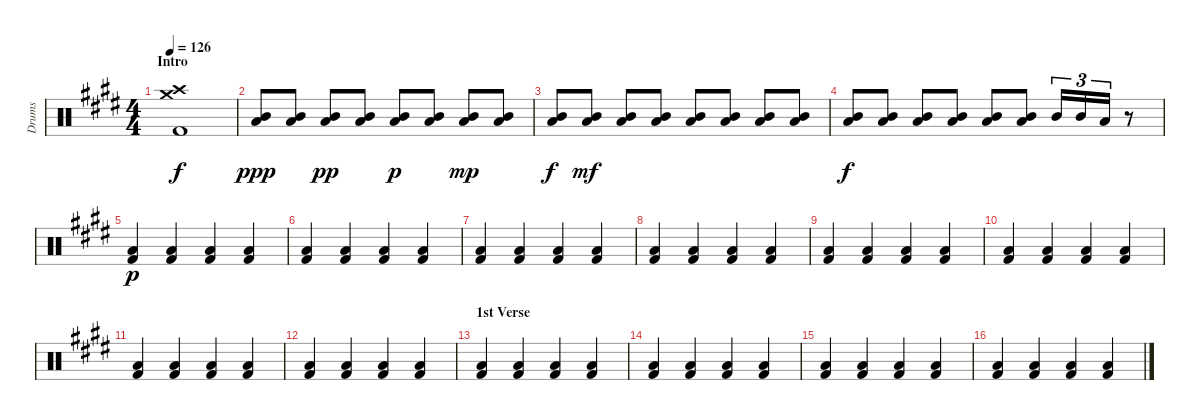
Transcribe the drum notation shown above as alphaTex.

\track ("Drums" "Drums") {instrument percussion}
\staff {score}
\articulation defaults
\ts (4 4)
\section ("" "Intro")
\tempo 126
\clef neutral
\ks e
("Crash high (hit)" "Crash medium (hit)" "Kick (hit) 2").1{dy f} |
("Mid Tom (hit)" "Low Tom (hit)").8{dy ppp} ("Mid Tom (hit)" "Low Tom (hit)").8 ("Mid Tom (hit)" "Low Tom (hit)").8{dy pp} ("Mid Tom (hit)" "Low Tom (hit)").8 ("Mid Tom (hit)" "Low Tom (hit)").8{dy p} ("Mid Tom (hit)" "Low Tom (hit)").8 ("Mid Tom (hit)" "Low Tom (hit)").8{dy mp} ("Mid Tom (hit)" "Low Tom (hit)").8 |
("Mid Tom (hit)" "Low Tom (hit)").8{dy f} ("Mid Tom (hit)" "Low Tom (hit)").8{dy mf} ("Mid Tom (hit)" "Low Tom (hit)").8 ("Mid Tom (hit)" "Low Tom (hit)").8 ("Mid Tom (hit)" "Low Tom (hit)").8 ("Mid Tom (hit)" "Low Tom (hit)").8 ("Mid Tom (hit)" "Low Tom (hit)").8 ("Mid Tom (hit)" "Low Tom (hit)").8 |
("Mid Tom (hit)" "Low Tom (hit)").8{dy f} ("Mid Tom (hit)" "Low Tom (hit)").8 ("Mid Tom (hit)" "Low Tom (hit)").8 ("Mid Tom (hit)" "Low Tom (hit)").8 ("Mid Tom (hit)" "Low Tom (hit)").8 ("Mid Tom (hit)" "Low Tom (hit)").8 "Mid Tom (hit)".16{tu (3 2)} "Mid Tom (hit)".16{tu (3 2)} "Low Tom (hit)".16{tu (3 2)} r.8 |
("Low Tom (hit)" "Kick (hit) 2").4{dy p} ("Low Tom (hit)" "Kick (hit) 2").4 ("Low Tom (hit)" "Kick (hit) 2").4 ("Low Tom (hit)" "Kick (hit) 2").4 |
("Low Tom (hit)" "Kick (hit) 2").4 ("Low Tom (hit)" "Kick (hit) 2").4 ("Low Tom (hit)" "Kick (hit) 2").4 ("Low Tom (hit)" "Kick (hit) 2").4 |
("Low Tom (hit)" "Kick (hit) 2").4 ("Low Tom (hit)" "Kick (hit) 2").4 ("Low Tom (hit)" "Kick (hit) 2").4 ("Low Tom (hit)" "Kick (hit) 2").4 |
("Low Tom (hit)" "Kick (hit) 2").4 ("Low Tom (hit)" "Kick (hit) 2").4 ("Low Tom (hit)" "Kick (hit) 2").4 ("Low Tom (hit)" "Kick (hit) 2").4 |
("Low Tom (hit)" "Kick (hit) 2").4 ("Low Tom (hit)" "Kick (hit) 2").4 ("Low Tom (hit)" "Kick (hit) 2").4 ("Low Tom (hit)" "Kick (hit) 2").4 |
("Low Tom (hit)" "Kick (hit) 2").4 ("Low Tom (hit)" "Kick (hit) 2").4 ("Low Tom (hit)" "Kick (hit) 2").4 ("Low Tom (hit)" "Kick (hit) 2").4 |
("Low Tom (hit)" "Kick (hit) 2").4 ("Low Tom (hit)" "Kick (hit) 2").4 ("Low Tom (hit)" "Kick (hit) 2").4 ("Low Tom (hit)" "Kick (hit) 2").4 |
("Low Tom (hit)" "Kick (hit) 2").4 ("Low Tom (hit)" "Kick (hit) 2").4 ("Low Tom (hit)" "Kick (hit) 2").4 ("Low Tom (hit)" "Kick (hit) 2").4 |
\section ("" "1st Verse")
("Low Tom (hit)" "Kick (hit) 2").4 ("Low Tom (hit)" "Kick (hit) 2").4 ("Low Tom (hit)" "Kick (hit) 2").4 ("Low Tom (hit)" "Kick (hit) 2").4 |
("Low Tom (hit)" "Kick (hit) 2").4 ("Low Tom (hit)" "Kick (hit) 2").4 ("Low Tom (hit)" "Kick (hit) 2").4 ("Low Tom (hit)" "Kick (hit) 2").4 |
("Low Tom (hit)" "Kick (hit) 2").4 ("Low Tom (hit)" "Kick (hit) 2").4 ("Low Tom (hit)" "Kick (hit) 2").4 ("Low Tom (hit)" "Kick (hit) 2").4 |
("Low Tom (hit)" "Kick (hit) 2").4 ("Low Tom (hit)" "Kick (hit) 2").4 ("Low Tom (hit)" "Kick (hit) 2").4 ("Low Tom (hit)" "Kick (hit) 2").4
